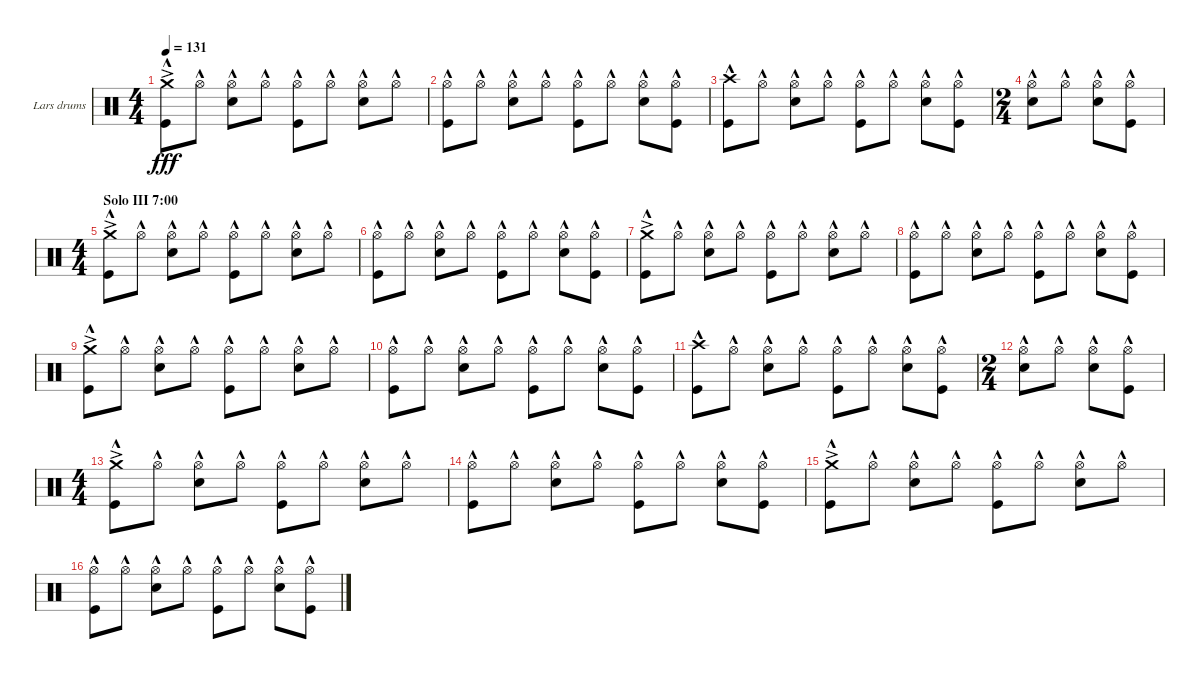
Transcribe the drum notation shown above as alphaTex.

\defaultSystemsLayout 4
\bracketExtendMode groupsimilarinstruments
\firstSystemTrackNameOrientation horizontal
\otherSystemsTrackNameOrientation horizontal
\track ("Lars drums" "Lars drums") {instrument percussion}
\staff {score}
\articulation defaults
\ts (4 4)
\tempo 131
\clef neutral
\ks c
("Crash medium (hit)"{ac} "Kick (hit)"{hac}).8{dy fff} "Hi-Hat (open)"{hac}.8 ("Hi-Hat (open)"{hac} "Snare (hit) 2"{hac}).8 "Hi-Hat (open)"{hac}.8 ("Hi-Hat (open)"{hac} "Kick (hit)"{hac}).8 "Hi-Hat (open)"{hac}.8 ("Hi-Hat (open)"{hac} "Snare (hit) 2"{hac}).8 "Hi-Hat (open)"{hac}.8 |
("Hi-Hat (open)"{hac} "Kick (hit)"{hac}).8 "Hi-Hat (open)"{hac}.8 ("Hi-Hat (open)"{hac} "Snare (hit) 2"{hac}).8 "Hi-Hat (open)"{hac}.8 ("Hi-Hat (open)"{hac} "Kick (hit)"{hac}).8 "Hi-Hat (open)"{hac}.8 ("Hi-Hat (open)"{hac} "Snare (hit) 2"{hac}).8 ("Hi-Hat (open)"{hac} "Kick (hit)"{hac}).8 |
("Crash high (hit)"{hac} "Kick (hit)"{hac}).8 "Hi-Hat (open)"{hac}.8 ("Hi-Hat (open)"{hac} "Snare (hit) 2"{hac}).8 "Hi-Hat (open)"{hac}.8 ("Hi-Hat (open)"{hac} "Kick (hit)"{hac}).8 "Hi-Hat (open)"{hac}.8 ("Hi-Hat (open)"{hac} "Snare (hit) 2"{hac}).8 ("Hi-Hat (open)"{hac} "Kick (hit)"{hac}).8 |
\ts (2 4)
("Hi-Hat (open)"{hac} "Snare (hit) 2"{hac}).8 "Hi-Hat (open)"{hac}.8 ("Hi-Hat (open)"{hac} "Snare (hit) 2"{hac}).8 ("Hi-Hat (open)"{hac} "Kick (hit)"{hac}).8 |
\ts (4 4)
\section ("" "Solo III 7:00")
("Crash medium (hit)"{ac} "Kick (hit)"{hac}).8 "Hi-Hat (open)"{hac}.8 ("Hi-Hat (open)"{hac} "Snare (hit) 2"{hac}).8 "Hi-Hat (open)"{hac}.8 ("Hi-Hat (open)"{hac} "Kick (hit)"{hac}).8 "Hi-Hat (open)"{hac}.8 ("Hi-Hat (open)"{hac} "Snare (hit) 2"{hac}).8 "Hi-Hat (open)"{hac}.8 |
("Hi-Hat (open)"{hac} "Kick (hit)"{hac}).8 "Hi-Hat (open)"{hac}.8 ("Hi-Hat (open)"{hac} "Snare (hit) 2"{hac}).8 "Hi-Hat (open)"{hac}.8 ("Hi-Hat (open)"{hac} "Kick (hit)"{hac}).8 "Hi-Hat (open)"{hac}.8 ("Hi-Hat (open)"{hac} "Snare (hit) 2"{hac}).8 ("Hi-Hat (open)"{hac} "Kick (hit)"{hac}).8 |
("Crash medium (hit)"{ac} "Kick (hit)"{hac}).8 "Hi-Hat (open)"{hac}.8 ("Hi-Hat (open)"{hac} "Snare (hit) 2"{hac}).8 "Hi-Hat (open)"{hac}.8 ("Hi-Hat (open)"{hac} "Kick (hit)"{hac}).8 "Hi-Hat (open)"{hac}.8 ("Hi-Hat (open)"{hac} "Snare (hit) 2"{hac}).8 "Hi-Hat (open)"{hac}.8 |
("Hi-Hat (open)"{hac} "Kick (hit)"{hac}).8 "Hi-Hat (open)"{hac}.8 ("Hi-Hat (open)"{hac} "Snare (hit) 2"{hac}).8 "Hi-Hat (open)"{hac}.8 ("Hi-Hat (open)"{hac} "Kick (hit)"{hac}).8 "Hi-Hat (open)"{hac}.8 ("Hi-Hat (open)"{hac} "Snare (hit) 2"{hac}).8 ("Hi-Hat (open)"{hac} "Kick (hit)"{hac}).8 |
("Crash medium (hit)"{ac} "Kick (hit)"{hac}).8 "Hi-Hat (open)"{hac}.8 ("Hi-Hat (open)"{hac} "Snare (hit) 2"{hac}).8 "Hi-Hat (open)"{hac}.8 ("Hi-Hat (open)"{hac} "Kick (hit)"{hac}).8 "Hi-Hat (open)"{hac}.8 ("Hi-Hat (open)"{hac} "Snare (hit) 2"{hac}).8 "Hi-Hat (open)"{hac}.8 |
("Hi-Hat (open)"{hac} "Kick (hit)"{hac}).8 "Hi-Hat (open)"{hac}.8 ("Hi-Hat (open)"{hac} "Snare (hit) 2"{hac}).8 "Hi-Hat (open)"{hac}.8 ("Hi-Hat (open)"{hac} "Kick (hit)"{hac}).8 "Hi-Hat (open)"{hac}.8 ("Hi-Hat (open)"{hac} "Snare (hit) 2"{hac}).8 ("Hi-Hat (open)"{hac} "Kick (hit)"{hac}).8 |
("Crash high (hit)"{hac} "Kick (hit)"{hac}).8 "Hi-Hat (open)"{hac}.8 ("Hi-Hat (open)"{hac} "Snare (hit) 2"{hac}).8 "Hi-Hat (open)"{hac}.8 ("Hi-Hat (open)"{hac} "Kick (hit)"{hac}).8 "Hi-Hat (open)"{hac}.8 ("Hi-Hat (open)"{hac} "Snare (hit) 2"{hac}).8 ("Hi-Hat (open)"{hac} "Kick (hit)"{hac}).8 |
\ts (2 4)
("Hi-Hat (open)"{hac} "Snare (hit) 2"{hac}).8 "Hi-Hat (open)"{hac}.8 ("Hi-Hat (open)"{hac} "Snare (hit) 2"{hac}).8 ("Hi-Hat (open)"{hac} "Kick (hit)"{hac}).8 |
\ts (4 4)
("Crash medium (hit)"{ac} "Kick (hit)"{hac}).8 "Hi-Hat (open)"{hac}.8 ("Hi-Hat (open)"{hac} "Snare (hit) 2"{hac}).8 "Hi-Hat (open)"{hac}.8 ("Hi-Hat (open)"{hac} "Kick (hit)"{hac}).8 "Hi-Hat (open)"{hac}.8 ("Hi-Hat (open)"{hac} "Snare (hit) 2"{hac}).8 "Hi-Hat (open)"{hac}.8 |
("Hi-Hat (open)"{hac} "Kick (hit)"{hac}).8 "Hi-Hat (open)"{hac}.8 ("Hi-Hat (open)"{hac} "Snare (hit) 2"{hac}).8 "Hi-Hat (open)"{hac}.8 ("Hi-Hat (open)"{hac} "Kick (hit)"{hac}).8 "Hi-Hat (open)"{hac}.8 ("Hi-Hat (open)"{hac} "Snare (hit) 2"{hac}).8 ("Hi-Hat (open)"{hac} "Kick (hit)"{hac}).8 |
("Crash medium (hit)"{ac} "Kick (hit)"{hac}).8 "Hi-Hat (open)"{hac}.8 ("Hi-Hat (open)"{hac} "Snare (hit) 2"{hac}).8 "Hi-Hat (open)"{hac}.8 ("Hi-Hat (open)"{hac} "Kick (hit)"{hac}).8 "Hi-Hat (open)"{hac}.8 ("Hi-Hat (open)"{hac} "Snare (hit) 2"{hac}).8 "Hi-Hat (open)"{hac}.8 |
("Hi-Hat (open)"{hac} "Kick (hit)"{hac}).8 "Hi-Hat (open)"{hac}.8 ("Hi-Hat (open)"{hac} "Snare (hit) 2"{hac}).8 "Hi-Hat (open)"{hac}.8 ("Hi-Hat (open)"{hac} "Kick (hit)"{hac}).8 "Hi-Hat (open)"{hac}.8 ("Hi-Hat (open)"{hac} "Snare (hit) 2"{hac}).8 ("Hi-Hat (open)"{hac} "Kick (hit)"{hac}).8
